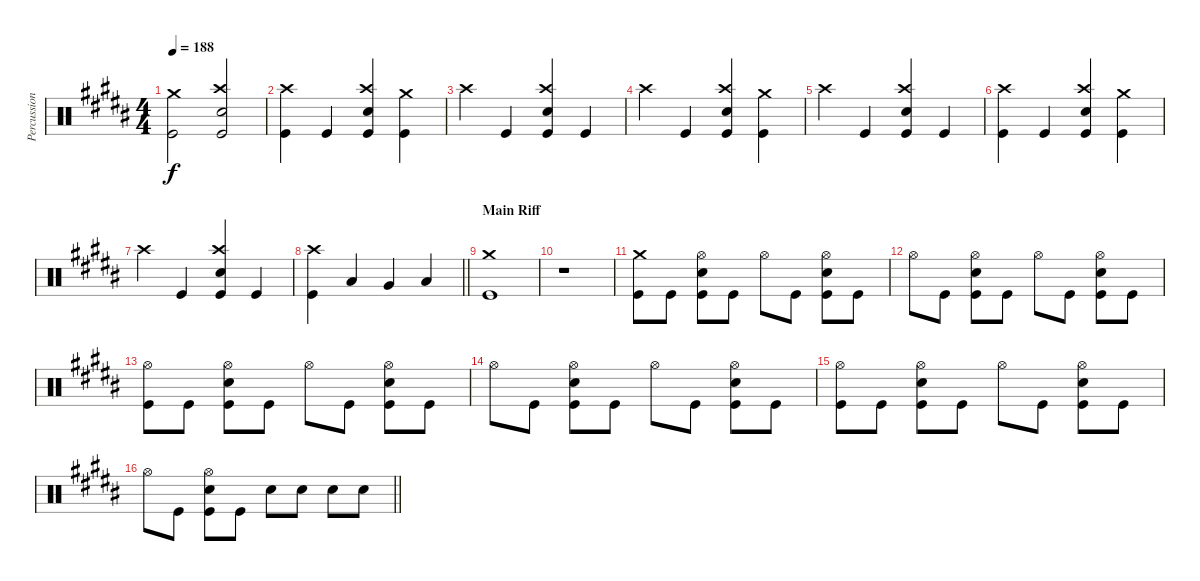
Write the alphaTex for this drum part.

\track ("Percussion" "Percussion") {instrument percussion}
\staff {score}
\articulation defaults
\ts (4 4)
\tempo 188
\clef neutral
\ks b
("Crash medium (hit)" "Kick (hit)").2{dy f} ("Crash high (hit)" "Electric Snare (hit)" "Kick (hit)").2 |
("Crash high (hit)" "Kick (hit)").4 "Kick (hit)".4 ("Crash high (hit)" "Electric Snare (hit)" "Kick (hit)").4 ("Crash medium (hit)" "Kick (hit)").4 |
"Crash high (hit)".4 "Kick (hit)".4 ("Crash high (hit)" "Electric Snare (hit)" "Kick (hit)").4 "Kick (hit)".4 |
"Crash high (hit)".4 "Kick (hit)".4 ("Crash high (hit)" "Electric Snare (hit)" "Kick (hit)").4 ("Crash medium (hit)" "Kick (hit)").4 |
"Crash high (hit)".4 "Kick (hit)".4 ("Crash high (hit)" "Electric Snare (hit)" "Kick (hit)").4 "Kick (hit)".4 |
("Crash high (hit)" "Kick (hit)").4 "Kick (hit)".4 ("Crash high (hit)" "Electric Snare (hit)" "Kick (hit)").4 ("Crash medium (hit)" "Kick (hit)").4 |
"Crash high (hit)".4 "Kick (hit)".4 ("Crash high (hit)" "Electric Snare (hit)" "Kick (hit)").4 "Kick (hit)".4 |
\barLineRight lightlight
("Crash high (hit)" "Kick (hit)").4 "Low Tom (hit)".4 "Very Low Tom (hit)".4 "Low Floor Tom (hit)".4 |
\section ("" "Main Riff")
("Crash medium (hit)" "Kick (hit)").1 |
r.1 |
("Crash medium (hit)" "Kick (hit)").8 "Kick (hit)".8 ("Hi-Hat (open)" "Electric Snare (hit)" "Kick (hit)").8 "Kick (hit)".8 "Hi-Hat (open)".8 "Kick (hit)".8 ("Hi-Hat (open)" "Electric Snare (hit)" "Kick (hit)").8 "Kick (hit)".8 |
"Hi-Hat (open)".8 "Kick (hit)".8 ("Hi-Hat (open)" "Electric Snare (hit)" "Kick (hit)").8 "Kick (hit)".8 "Hi-Hat (open)".8 "Kick (hit)".8 ("Hi-Hat (open)" "Electric Snare (hit)" "Kick (hit)").8 "Kick (hit)".8 |
("Hi-Hat (open)" "Kick (hit)").8 "Kick (hit)".8 ("Hi-Hat (open)" "Electric Snare (hit)" "Kick (hit)").8 "Kick (hit)".8 "Hi-Hat (open)".8 "Kick (hit)".8 ("Hi-Hat (open)" "Electric Snare (hit)" "Kick (hit)").8 "Kick (hit)".8 |
"Hi-Hat (open)".8 "Kick (hit)".8 ("Hi-Hat (open)" "Electric Snare (hit)" "Kick (hit)").8 "Kick (hit)".8 "Hi-Hat (open)".8 "Kick (hit)".8 ("Hi-Hat (open)" "Electric Snare (hit)" "Kick (hit)").8 "Kick (hit)".8 |
("Hi-Hat (open)" "Kick (hit)").8 "Kick (hit)".8 ("Hi-Hat (open)" "Electric Snare (hit)" "Kick (hit)").8 "Kick (hit)".8 "Hi-Hat (open)".8 "Kick (hit)".8 ("Hi-Hat (open)" "Electric Snare (hit)" "Kick (hit)").8 "Kick (hit)".8 |
\barLineRight lightlight "Hi-Hat (open)".8 "Kick (hit)".8
("Hi-Hat (open)" "Electric Snare (hit)" "Kick (hit)").8 "Kick (hit)".8 "Electric Snare (hit)".8 "Electric Snare (hit)".8 "Electric Snare (hit)".8 "Electric Snare (hit)".8
